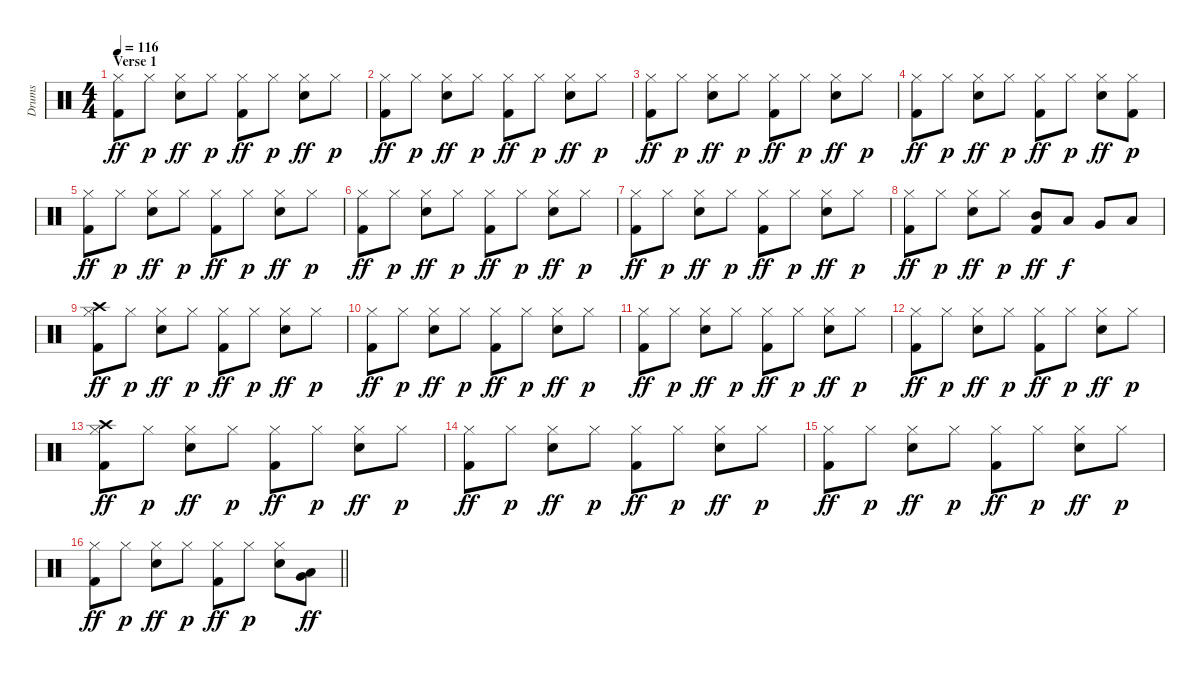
\track ("Drums" "Drums") {instrument percussion}
\staff {score}
\articulation defaults
\ts (4 4)
\section ("" "Verse 1")
\tempo 116
\clef neutral
\ks c
("Hi-Hat (closed)" "Kick (hit) 2").8{dy ff} "Hi-Hat (closed)".8{dy p} ("Hi-Hat (closed)" "Snare (hit) 2").8{dy ff} "Hi-Hat (closed)".8{dy p} ("Hi-Hat (closed)" "Kick (hit) 2").8{dy ff} "Hi-Hat (closed)".8{dy p} ("Hi-Hat (closed)" "Snare (hit) 2").8{dy ff} "Hi-Hat (closed)".8{dy p} |
("Hi-Hat (closed)" "Kick (hit) 2").8{dy ff} "Hi-Hat (closed)".8{dy p} ("Hi-Hat (closed)" "Snare (hit) 2").8{dy ff} "Hi-Hat (closed)".8{dy p} ("Hi-Hat (closed)" "Kick (hit) 2").8{dy ff} "Hi-Hat (closed)".8{dy p} ("Hi-Hat (closed)" "Snare (hit) 2").8{dy ff} "Hi-Hat (closed)".8{dy p} |
("Hi-Hat (closed)" "Kick (hit) 2").8{dy ff} "Hi-Hat (closed)".8{dy p} ("Hi-Hat (closed)" "Snare (hit) 2").8{dy ff} "Hi-Hat (closed)".8{dy p} ("Hi-Hat (closed)" "Kick (hit) 2").8{dy ff} "Hi-Hat (closed)".8{dy p} ("Hi-Hat (closed)" "Snare (hit) 2").8{dy ff} "Hi-Hat (closed)".8{dy p} |
("Hi-Hat (closed)" "Kick (hit) 2").8{dy ff} "Hi-Hat (closed)".8{dy p} ("Hi-Hat (closed)" "Snare (hit) 2").8{dy ff} "Hi-Hat (closed)".8{dy p} ("Hi-Hat (closed)" "Kick (hit) 2").8{dy ff} "Hi-Hat (closed)".8{dy p} ("Hi-Hat (closed)" "Snare (hit) 2").8{dy ff} ("Hi-Hat (closed)" "Kick (hit) 2").8{dy p} |
("Hi-Hat (closed)" "Kick (hit) 2").8{dy ff} "Hi-Hat (closed)".8{dy p} ("Hi-Hat (closed)" "Snare (hit) 2").8{dy ff} "Hi-Hat (closed)".8{dy p} ("Hi-Hat (closed)" "Kick (hit) 2").8{dy ff} "Hi-Hat (closed)".8{dy p} ("Hi-Hat (closed)" "Snare (hit) 2").8{dy ff} "Hi-Hat (closed)".8{dy p} |
("Hi-Hat (closed)" "Kick (hit) 2").8{dy ff} "Hi-Hat (closed)".8{dy p} ("Hi-Hat (closed)" "Snare (hit) 2").8{dy ff} "Hi-Hat (closed)".8{dy p} ("Hi-Hat (closed)" "Kick (hit) 2").8{dy ff} "Hi-Hat (closed)".8{dy p} ("Hi-Hat (closed)" "Snare (hit) 2").8{dy ff} "Hi-Hat (closed)".8{dy p} |
("Hi-Hat (closed)" "Kick (hit) 2").8{dy ff} "Hi-Hat (closed)".8{dy p} ("Hi-Hat (closed)" "Snare (hit) 2").8{dy ff} "Hi-Hat (closed)".8{dy p} ("Hi-Hat (closed)" "Kick (hit) 2").8{dy ff} "Hi-Hat (closed)".8{dy p} ("Hi-Hat (closed)" "Snare (hit) 2").8{dy ff} "Hi-Hat (closed)".8{dy p} |
("Hi-Hat (closed)" "Kick (hit) 2").8{dy ff} "Hi-Hat (closed)".8{dy p} ("Hi-Hat (closed)" "Snare (hit) 2").8{dy ff} "Hi-Hat (closed)".8{dy p} ("Mid Tom (hit)" "Kick (hit) 2").8{dy ff} "Low Tom (hit)".8{dy f} "Very Low Tom (hit)".8 "Low Floor Tom (hit)".8 |
("Crash high (hit)" "Hi-Hat (closed)" "Kick (hit) 2").8{dy ff} "Hi-Hat (closed)".8{dy p} ("Hi-Hat (closed)" "Snare (hit) 2").8{dy ff} "Hi-Hat (closed)".8{dy p} ("Hi-Hat (closed)" "Kick (hit) 2").8{dy ff} "Hi-Hat (closed)".8{dy p} ("Hi-Hat (closed)" "Snare (hit) 2").8{dy ff} "Hi-Hat (closed)".8{dy p} |
("Hi-Hat (closed)" "Kick (hit) 2").8{dy ff} "Hi-Hat (closed)".8{dy p} ("Hi-Hat (closed)" "Snare (hit) 2").8{dy ff} "Hi-Hat (closed)".8{dy p} ("Hi-Hat (closed)" "Kick (hit) 2").8{dy ff} "Hi-Hat (closed)".8{dy p} ("Hi-Hat (closed)" "Snare (hit) 2").8{dy ff} "Hi-Hat (closed)".8{dy p} |
("Hi-Hat (closed)" "Kick (hit) 2").8{dy ff} "Hi-Hat (closed)".8{dy p} ("Hi-Hat (closed)" "Snare (hit) 2").8{dy ff} "Hi-Hat (closed)".8{dy p} ("Hi-Hat (closed)" "Kick (hit) 2").8{dy ff} "Hi-Hat (closed)".8{dy p} ("Hi-Hat (closed)" "Snare (hit) 2").8{dy ff} "Hi-Hat (closed)".8{dy p} |
("Hi-Hat (closed)" "Kick (hit) 2").8{dy ff} "Hi-Hat (closed)".8{dy p} ("Hi-Hat (closed)" "Snare (hit) 2").8{dy ff} "Hi-Hat (closed)".8{dy p} ("Hi-Hat (closed)" "Kick (hit) 2").8{dy ff} "Hi-Hat (closed)".8{dy p} ("Hi-Hat (closed)" "Snare (hit) 2").8{dy ff} "Hi-Hat (closed)".8{dy p} |
("Crash high (hit)" "Hi-Hat (closed)" "Kick (hit) 2").8{dy ff} "Hi-Hat (closed)".8{dy p} ("Hi-Hat (closed)" "Snare (hit) 2").8{dy ff} "Hi-Hat (closed)".8{dy p} ("Hi-Hat (closed)" "Kick (hit) 2").8{dy ff} "Hi-Hat (closed)".8{dy p} ("Hi-Hat (closed)" "Snare (hit) 2").8{dy ff} "Hi-Hat (closed)".8{dy p} |
("Hi-Hat (closed)" "Kick (hit) 2").8{dy ff} "Hi-Hat (closed)".8{dy p} ("Hi-Hat (closed)" "Snare (hit) 2").8{dy ff} "Hi-Hat (closed)".8{dy p} ("Hi-Hat (closed)" "Kick (hit) 2").8{dy ff} "Hi-Hat (closed)".8{dy p} ("Hi-Hat (closed)" "Snare (hit) 2").8{dy ff} "Hi-Hat (closed)".8{dy p} |
("Hi-Hat (closed)" "Kick (hit) 2").8{dy ff} "Hi-Hat (closed)".8{dy p} ("Hi-Hat (closed)" "Snare (hit) 2").8{dy ff} "Hi-Hat (closed)".8{dy p} ("Hi-Hat (closed)" "Kick (hit) 2").8{dy ff} "Hi-Hat (closed)".8{dy p} ("Hi-Hat (closed)" "Snare (hit) 2").8{dy ff} "Hi-Hat (closed)".8{dy p} |
\barLineRight lightlight
("Hi-Hat (closed)" "Kick (hit) 2").8{dy ff} "Hi-Hat (closed)".8{dy p} ("Hi-Hat (closed)" "Snare (hit) 2").8{dy ff} "Hi-Hat (closed)".8{dy p} ("Hi-Hat (closed)" "Kick (hit) 2").8{dy ff} "Hi-Hat (closed)".8{dy p} ("Hi-Hat (closed)" "Snare (hit) 2").8 ("Low Tom (hit)" "Very Low Tom (hit)").8{dy ff}
